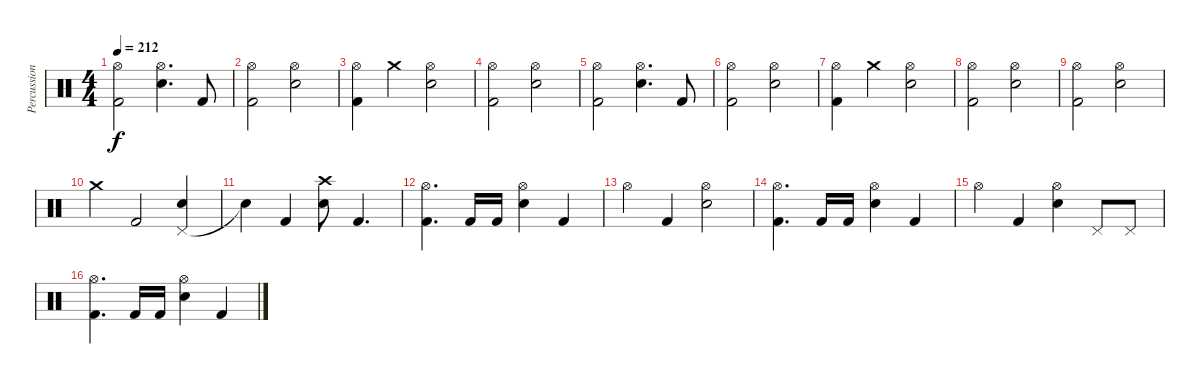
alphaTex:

\track ("Percussions" "Percussion") {instrument percussion}
\staff {score}
\articulation defaults
\ts (4 4)
\tempo 212
\clef neutral
\ks c
("Hi-Hat (open)" "Kick (hit) 2").2{dy f} ("Hi-Hat (open)" "Snare (hit) 2").4{d} "Kick (hit) 2".8 |
("Hi-Hat (open)" "Kick (hit) 2").2 ("Hi-Hat (open)" "Snare (hit) 2").2 |
("Hi-Hat (open)" "Kick (hit) 2").4 "Crash medium (hit)".4 ("Hi-Hat (open)" "Snare (hit) 2").2 |
("Hi-Hat (open)" "Kick (hit) 2").2 ("Hi-Hat (open)" "Snare (hit) 2").2 |
("Hi-Hat (open)" "Kick (hit) 2").2 ("Hi-Hat (open)" "Snare (hit) 2").4{d} "Kick (hit) 2".8 |
("Hi-Hat (open)" "Kick (hit) 2").2 ("Hi-Hat (open)" "Snare (hit) 2").2 |
("Hi-Hat (open)" "Kick (hit) 2").4 "Crash medium (hit)".4 ("Hi-Hat (open)" "Snare (hit) 2").2 |
("Hi-Hat (open)" "Kick (hit) 2").2 ("Hi-Hat (open)" "Snare (hit) 2").2 |
("Hi-Hat (open)" "Kick (hit) 2").2 ("Hi-Hat (open)" "Snare (hit) 2").2 |
"Crash medium (hit)".4 "Kick (hit) 2".2 ("Pedal Hi-Hat (hit)" "Snare (hit) 2").4 |
"Snare (hit)"{t}.4 "Kick (hit) 2".4 ("Crash high (hit)" "Snare (hit) 2").8 "Kick (hit) 2".4{d} |
("Hi-Hat (open)" "Kick (hit) 2").4{d} "Kick (hit) 2".16 "Kick (hit) 2".16 ("Hi-Hat (open)" "Snare (hit) 2").4 "Kick (hit) 2".4 |
"Hi-Hat (open)".4 "Kick (hit) 2".4 ("Hi-Hat (open)" "Snare (hit) 2").2 |
("Hi-Hat (open)" "Kick (hit) 2").4{d} "Kick (hit) 2".16 "Kick (hit) 2".16 ("Hi-Hat (open)" "Snare (hit) 2").4 "Kick (hit) 2".4 |
"Hi-Hat (open)".4 "Kick (hit) 2".4 ("Hi-Hat (open)" "Snare (hit) 2").4 "Pedal Hi-Hat (hit)".8 "Pedal Hi-Hat (hit)".8 |
("Hi-Hat (open)" "Kick (hit) 2").4{d} "Kick (hit) 2".16 "Kick (hit) 2".16 ("Hi-Hat (open)" "Snare (hit) 2").4 "Kick (hit) 2".4
